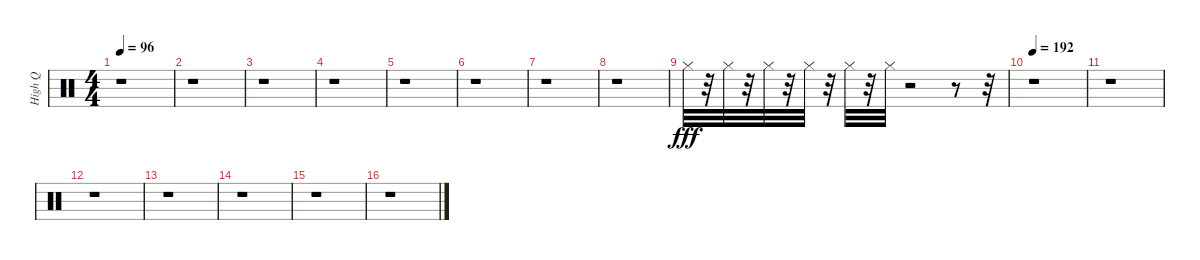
\track ("High Q" "High Q") {instrument percussion}
\staff {score}
\articulation defaults
\ts (4 4)
\tempo 96
\clef neutral
\ks c
r.1{dy fff} |
r.1 |
r.1 |
r.1 |
r.1 |
r.1 |
r.1 |
r.1 |
"Hi-Hat (closed)".32 r.32 "Hi-Hat (closed)".32 r.32 "Hi-Hat (closed)".32 r.32 "Hi-Hat (closed)".32 r.32 "Hi-Hat (closed)".32 r.32 "Hi-Hat (closed)".32 r.2 r.8 r.32 |
\tempo 192
r.1 |
r.1 |
r.1 |
r.1 |
r.1 |
r.1 |
r.1
